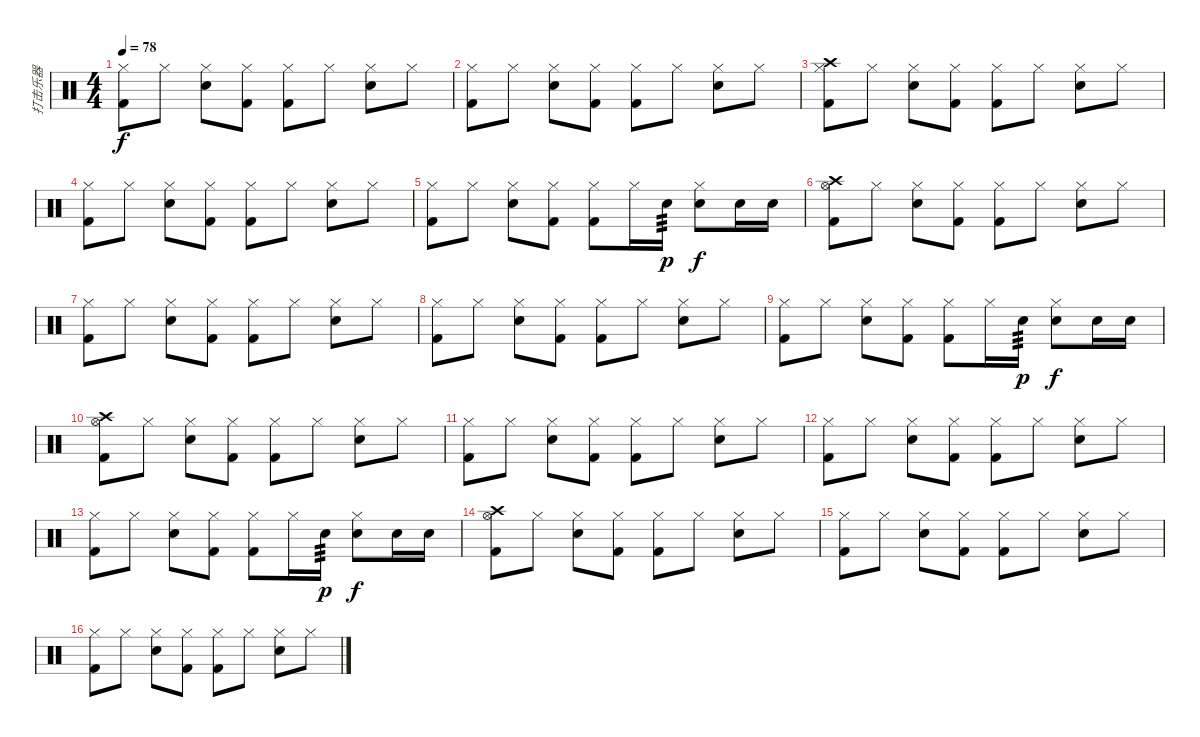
\track ("打击乐器" "打击乐器") {instrument percussion}
\staff {score}
\articulation defaults
\ts (4 4)
\tempo 78
\clef neutral
\ks c
("Hi-Hat (closed)" "Kick (hit) 2").8{dy f} "Hi-Hat (closed)".8 ("Hi-Hat (closed)" "Electric Snare (hit)").8 ("Hi-Hat (closed)" "Kick (hit) 2").8 ("Hi-Hat (closed)" "Kick (hit) 2").8 "Hi-Hat (closed)".8 ("Hi-Hat (closed)" "Electric Snare (hit)").8 "Hi-Hat (closed)".8 |
("Hi-Hat (closed)" "Kick (hit) 2").8 "Hi-Hat (closed)".8 ("Hi-Hat (closed)" "Electric Snare (hit)").8 ("Hi-Hat (closed)" "Kick (hit) 2").8 ("Hi-Hat (closed)" "Kick (hit) 2").8 "Hi-Hat (closed)".8 ("Hi-Hat (closed)" "Electric Snare (hit)").8 "Hi-Hat (closed)".8 |
("Crash high (hit)" "Hi-Hat (closed)" "Kick (hit) 2").8 "Hi-Hat (closed)".8 ("Hi-Hat (closed)" "Electric Snare (hit)").8 ("Hi-Hat (closed)" "Kick (hit) 2").8 ("Hi-Hat (closed)" "Kick (hit) 2").8 "Hi-Hat (closed)".8 ("Hi-Hat (closed)" "Electric Snare (hit)").8 "Hi-Hat (closed)".8 |
("Hi-Hat (closed)" "Kick (hit) 2").8 "Hi-Hat (closed)".8 ("Hi-Hat (closed)" "Electric Snare (hit)").8 ("Hi-Hat (closed)" "Kick (hit) 2").8 ("Hi-Hat (closed)" "Kick (hit) 2").8 "Hi-Hat (closed)".8 ("Hi-Hat (closed)" "Electric Snare (hit)").8 "Hi-Hat (closed)".8 |
("Hi-Hat (closed)" "Kick (hit) 2").8 "Hi-Hat (closed)".8 ("Hi-Hat (closed)" "Electric Snare (hit)").8 ("Hi-Hat (closed)" "Kick (hit) 2").8 ("Hi-Hat (closed)" "Kick (hit) 2").8 "Hi-Hat (closed)".16 "Electric Snare (hit)".16{tp 3 dy p} ("Hi-Hat (closed)" "Electric Snare (hit)").8{dy f} "Electric Snare (hit)".16 "Electric Snare (hit)".16 |
("Crash high (hit)" "Hi-Hat (open)" "Kick (hit) 2").8 "Hi-Hat (closed)".8 ("Hi-Hat (closed)" "Electric Snare (hit)").8 ("Hi-Hat (closed)" "Kick (hit) 2").8 ("Hi-Hat (closed)" "Kick (hit) 2").8 "Hi-Hat (closed)".8 ("Hi-Hat (closed)" "Electric Snare (hit)").8 "Hi-Hat (closed)".8 |
("Hi-Hat (closed)" "Kick (hit) 2").8 "Hi-Hat (closed)".8 ("Hi-Hat (closed)" "Electric Snare (hit)").8 ("Hi-Hat (closed)" "Kick (hit) 2").8 ("Hi-Hat (closed)" "Kick (hit) 2").8 "Hi-Hat (closed)".8 ("Hi-Hat (closed)" "Electric Snare (hit)").8 "Hi-Hat (closed)".8 |
("Hi-Hat (closed)" "Kick (hit) 2").8 "Hi-Hat (closed)".8 ("Hi-Hat (closed)" "Electric Snare (hit)").8 ("Hi-Hat (closed)" "Kick (hit) 2").8 ("Hi-Hat (closed)" "Kick (hit) 2").8 "Hi-Hat (closed)".8 ("Hi-Hat (closed)" "Electric Snare (hit)").8 "Hi-Hat (closed)".8 |
("Hi-Hat (closed)" "Kick (hit) 2").8 "Hi-Hat (closed)".8 ("Hi-Hat (closed)" "Electric Snare (hit)").8 ("Hi-Hat (closed)" "Kick (hit) 2").8 ("Hi-Hat (closed)" "Kick (hit) 2").8 "Hi-Hat (closed)".16 "Electric Snare (hit)".16{tp 3 dy p} ("Hi-Hat (closed)" "Electric Snare (hit)").8{dy f} "Electric Snare (hit)".16 "Electric Snare (hit)".16 |
("Crash high (hit)" "Hi-Hat (open)" "Kick (hit) 2").8 "Hi-Hat (closed)".8 ("Hi-Hat (closed)" "Electric Snare (hit)").8 ("Hi-Hat (closed)" "Kick (hit) 2").8 ("Hi-Hat (closed)" "Kick (hit) 2").8 "Hi-Hat (closed)".8 ("Hi-Hat (closed)" "Electric Snare (hit)").8 "Hi-Hat (closed)".8 |
("Hi-Hat (closed)" "Kick (hit) 2").8 "Hi-Hat (closed)".8 ("Hi-Hat (closed)" "Electric Snare (hit)").8 ("Hi-Hat (closed)" "Kick (hit) 2").8 ("Hi-Hat (closed)" "Kick (hit) 2").8 "Hi-Hat (closed)".8 ("Hi-Hat (closed)" "Electric Snare (hit)").8 "Hi-Hat (closed)".8 |
("Hi-Hat (closed)" "Kick (hit) 2").8 "Hi-Hat (closed)".8 ("Hi-Hat (closed)" "Electric Snare (hit)").8 ("Hi-Hat (closed)" "Kick (hit) 2").8 ("Hi-Hat (closed)" "Kick (hit) 2").8 "Hi-Hat (closed)".8 ("Hi-Hat (closed)" "Electric Snare (hit)").8 "Hi-Hat (closed)".8 |
("Hi-Hat (closed)" "Kick (hit) 2").8 "Hi-Hat (closed)".8 ("Hi-Hat (closed)" "Electric Snare (hit)").8 ("Hi-Hat (closed)" "Kick (hit) 2").8 ("Hi-Hat (closed)" "Kick (hit) 2").8 "Hi-Hat (closed)".16 "Electric Snare (hit)".16{tp 3 dy p} ("Hi-Hat (closed)" "Electric Snare (hit)").8{dy f} "Electric Snare (hit)".16 "Electric Snare (hit)".16 |
("Crash high (hit)" "Hi-Hat (open)" "Kick (hit) 2").8 "Hi-Hat (closed)".8 ("Hi-Hat (closed)" "Electric Snare (hit)").8 ("Hi-Hat (closed)" "Kick (hit) 2").8 ("Hi-Hat (closed)" "Kick (hit) 2").8 "Hi-Hat (closed)".8 ("Hi-Hat (closed)" "Electric Snare (hit)").8 "Hi-Hat (closed)".8 |
("Hi-Hat (closed)" "Kick (hit) 2").8 "Hi-Hat (closed)".8 ("Hi-Hat (closed)" "Electric Snare (hit)").8 ("Hi-Hat (closed)" "Kick (hit) 2").8 ("Hi-Hat (closed)" "Kick (hit) 2").8 "Hi-Hat (closed)".8 ("Hi-Hat (closed)" "Electric Snare (hit)").8 "Hi-Hat (closed)".8 |
("Hi-Hat (closed)" "Kick (hit) 2").8 "Hi-Hat (closed)".8 ("Hi-Hat (closed)" "Electric Snare (hit)").8 ("Hi-Hat (closed)" "Kick (hit) 2").8 ("Hi-Hat (closed)" "Kick (hit) 2").8 "Hi-Hat (closed)".8 ("Hi-Hat (closed)" "Electric Snare (hit)").8 "Hi-Hat (closed)".8
